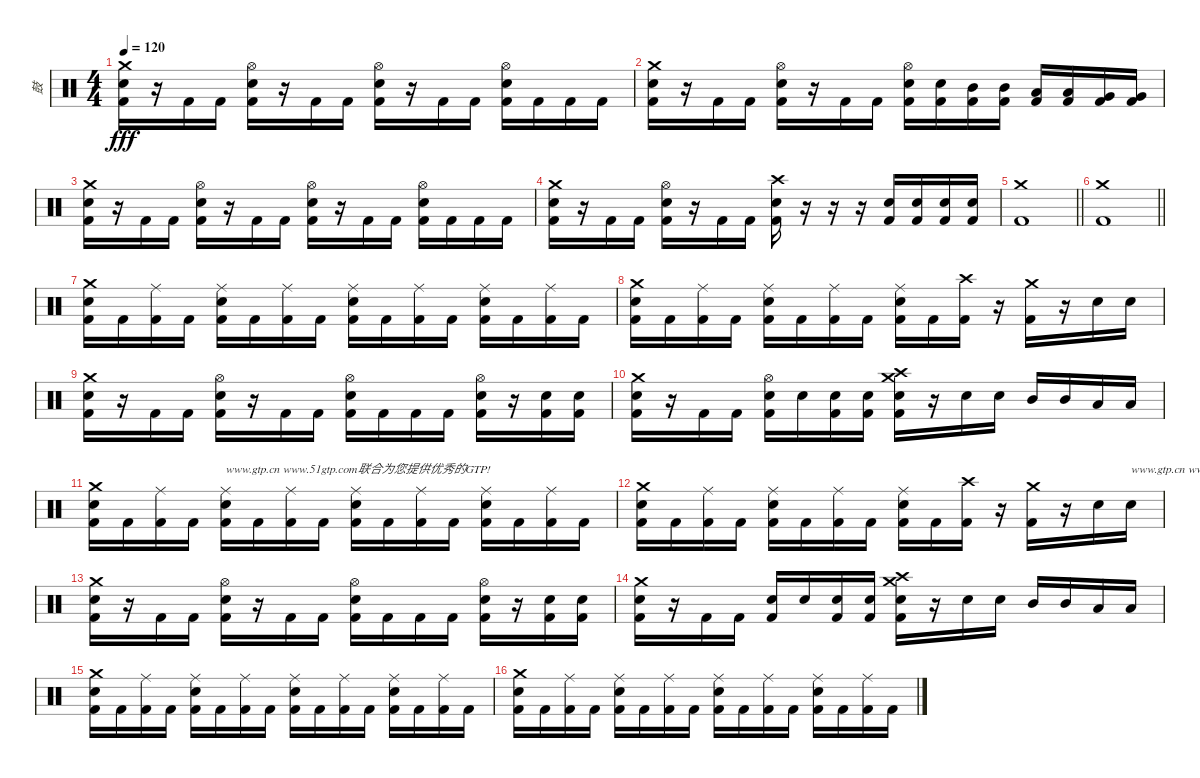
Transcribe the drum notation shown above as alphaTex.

\track ("鼓" "鼓") {instrument percussion}
\staff {score}
\articulation defaults
\ts (4 4)
\tempo 120
\clef neutral
\ks c
("Crash medium (hit)" "Snare (hit) 2" "Kick (hit) 2").16{dy fff} r.16 "Kick (hit) 2".16 "Kick (hit) 2".16 ("Hi-Hat (open)" "Snare (hit) 2" "Kick (hit) 2").16 r.16 "Kick (hit) 2".16 "Kick (hit) 2".16 ("Hi-Hat (open)" "Snare (hit) 2" "Kick (hit) 2").16 r.16 "Kick (hit) 2".16 "Kick (hit) 2".16 ("Hi-Hat (open)" "Snare (hit) 2" "Kick (hit) 2").16 "Kick (hit) 2".16 "Kick (hit) 2".16 "Kick (hit) 2".16 |
("Crash medium (hit)" "Snare (hit) 2" "Kick (hit) 2").16 r.16 "Kick (hit) 2".16 "Kick (hit) 2".16 ("Hi-Hat (open)" "Snare (hit) 2" "Kick (hit) 2").16 r.16 "Kick (hit) 2".16 "Kick (hit) 2".16 ("Hi-Hat (open)" "Snare (hit) 2" "Kick (hit) 2").16 ("Snare (hit) 2" "Kick (hit) 2").16 ("Mid Tom (hit)" "Kick (hit) 2").16 ("Mid Tom (hit)" "Kick (hit) 2").16 ("Low Tom (hit)" "Kick (hit) 2").16 ("Low Tom (hit)" "Kick (hit) 2").16 ("Very Low Tom (hit)" "Kick (hit) 2").16 ("Very Low Tom (hit)" "Kick (hit) 2").16 |
("Crash medium (hit)" "Snare (hit) 2" "Kick (hit) 2").16 r.16 "Kick (hit) 2".16 "Kick (hit) 2".16 ("Hi-Hat (open)" "Snare (hit) 2" "Kick (hit) 2").16 r.16 "Kick (hit) 2".16 "Kick (hit) 2".16 ("Hi-Hat (open)" "Snare (hit) 2" "Kick (hit) 2").16 r.16 "Kick (hit) 2".16 "Kick (hit) 2".16 ("Hi-Hat (open)" "Snare (hit) 2" "Kick (hit) 2").16 "Kick (hit) 2".16 "Kick (hit) 2".16 "Kick (hit) 2".16 |
("Crash medium (hit)" "Snare (hit) 2" "Kick (hit) 2").16 r.16 "Kick (hit) 2".16 "Kick (hit) 2".16 ("Hi-Hat (open)" "Snare (hit) 2" "Kick (hit) 2").16 r.16 "Kick (hit) 2".16 "Kick (hit) 2".16 ("Crash high (hit)" "Snare (hit) 2" "Kick (hit) 2").16 r.16 r.16 r.16 ("Snare (hit) 2" "Kick (hit) 2").16 ("Snare (hit) 2" "Kick (hit) 2").16 ("Snare (hit) 2" "Kick (hit) 2").16 ("Snare (hit) 2" "Kick (hit) 2").16 |
\barLineRight lightlight
("Crash medium (hit)" "Kick (hit) 2").1 |
\barLineRight lightlight
("Crash medium (hit)" "Kick (hit) 2").1 |
\section ("" "")
("Crash medium (hit)" "Snare (hit) 2" "Kick (hit) 2").16 "Kick (hit) 2".16 ("Ride (middle)" "Kick (hit) 2").16 "Kick (hit) 2".16 ("Ride (middle)" "Snare (hit) 2" "Kick (hit) 2").16 "Kick (hit) 2".16 ("Ride (middle)" "Kick (hit) 2").16 "Kick (hit) 2".16 ("Ride (middle)" "Snare (hit) 2" "Kick (hit) 2").16 "Kick (hit) 2".16 ("Ride (middle)" "Kick (hit) 2").16 "Kick (hit) 2".16 ("Ride (middle)" "Snare (hit) 2" "Kick (hit) 2").16 "Kick (hit) 2".16 ("Ride (middle)" "Kick (hit) 2").16 "Kick (hit) 2".16 |
("Crash medium (hit)" "Snare (hit) 2" "Kick (hit) 2").16 "Kick (hit) 2".16 ("Ride (middle)" "Kick (hit) 2").16 "Kick (hit) 2".16 ("Ride (middle)" "Snare (hit) 2" "Kick (hit) 2").16 "Kick (hit) 2".16 ("Ride (middle)" "Kick (hit) 2").16 "Kick (hit) 2".16 ("Ride (middle)" "Snare (hit) 2" "Kick (hit) 2").16 "Kick (hit) 2".16 ("Crash high (hit)" "Kick (hit) 2").16 r.16 ("Crash medium (hit)" "Kick (hit) 2").16 r.16 "Snare (hit) 2".16 "Snare (hit) 2".16 |
("Crash medium (hit)" "Snare (hit) 2" "Kick (hit) 2").16 r.16 "Kick (hit) 2".16 "Kick (hit) 2".16 ("Hi-Hat (open)" "Snare (hit) 2" "Kick (hit) 2").16 r.16 "Kick (hit) 2".16 "Kick (hit) 2".16 ("Hi-Hat (open)" "Snare (hit) 2" "Kick (hit) 2").16 "Kick (hit) 2".16 "Kick (hit) 2".16 "Kick (hit) 2".16 ("Hi-Hat (open)" "Snare (hit) 2" "Kick (hit) 2").16 r.16 ("Snare (hit) 2" "Kick (hit) 2").16 ("Snare (hit) 2" "Kick (hit) 2").16 |
("Crash medium (hit)" "Snare (hit) 2" "Kick (hit) 2").16 r.16 "Kick (hit) 2".16 "Kick (hit) 2".16 ("Hi-Hat (open)" "Snare (hit) 2" "Kick (hit) 2").16 "Snare (hit) 2".16 ("Snare (hit) 2" "Kick (hit) 2").16 ("Snare (hit) 2" "Kick (hit) 2").16 ("Crash medium (hit)" "Crash high (hit)" "Snare (hit) 2" "Kick (hit) 2").16 r.16 "Snare (hit) 2".16 "Snare (hit) 2".16 "Mid Tom (hit)".16 "Mid Tom (hit)".16 "Low Tom (hit)".16 "Low Tom (hit)".16 |
("Crash medium (hit)" "Snare (hit) 2" "Kick (hit) 2").16 "Kick (hit) 2".16 ("Ride (middle)" "Kick (hit) 2").16 "Kick (hit) 2".16 ("Ride (middle)" "Snare (hit) 2" "Kick (hit) 2").16{txt "www.gtp.cn www.51gtp.com联合为您提供优秀的GTP!"} "Kick (hit) 2".16 ("Ride (middle)" "Kick (hit) 2").16 "Kick (hit) 2".16 ("Ride (middle)" "Snare (hit) 2" "Kick (hit) 2").16 "Kick (hit) 2".16 ("Ride (middle)" "Kick (hit) 2").16 "Kick (hit) 2".16 ("Ride (middle)" "Snare (hit) 2" "Kick (hit) 2").16 "Kick (hit) 2".16 ("Ride (middle)" "Kick (hit) 2").16 "Kick (hit) 2".16 |
("Crash medium (hit)" "Snare (hit) 2" "Kick (hit) 2").16 "Kick (hit) 2".16 ("Ride (middle)" "Kick (hit) 2").16 "Kick (hit) 2".16 ("Ride (middle)" "Snare (hit) 2" "Kick (hit) 2").16 "Kick (hit) 2".16 ("Ride (middle)" "Kick (hit) 2").16 "Kick (hit) 2".16 ("Ride (middle)" "Snare (hit) 2" "Kick (hit) 2").16 "Kick (hit) 2".16 ("Crash high (hit)" "Kick (hit) 2").16 r.16 ("Crash medium (hit)" "Kick (hit) 2").16 r.16 "Snare (hit) 2".16 "Snare (hit) 2".16{txt "www.gtp.cn www.51gtp.com联合为您提供优秀的GTP!"} |
("Crash medium (hit)" "Snare (hit) 2" "Kick (hit) 2").16 r.16 "Kick (hit) 2".16 "Kick (hit) 2".16 ("Hi-Hat (open)" "Snare (hit) 2" "Kick (hit) 2").16 r.16 "Kick (hit) 2".16 "Kick (hit) 2".16 ("Hi-Hat (open)" "Snare (hit) 2" "Kick (hit) 2").16 "Kick (hit) 2".16 "Kick (hit) 2".16 "Kick (hit) 2".16 ("Hi-Hat (open)" "Snare (hit) 2" "Kick (hit) 2").16 r.16 ("Snare (hit) 2" "Kick (hit) 2").16 ("Snare (hit) 2" "Kick (hit) 2").16 |
("Crash medium (hit)" "Snare (hit) 2" "Kick (hit) 2").16 r.16 "Kick (hit) 2".16 "Kick (hit) 2".16 ("Snare (hit) 2" "Kick (hit) 2").16 "Snare (hit) 2".16 ("Snare (hit) 2" "Kick (hit) 2").16 ("Snare (hit) 2" "Kick (hit) 2").16 ("Crash medium (hit)" "Crash high (hit)" "Snare (hit) 2" "Kick (hit) 2").16 r.16 "Snare (hit) 2".16 "Snare (hit) 2".16 "Mid Tom (hit)".16 "Mid Tom (hit)".16 "Low Tom (hit)".16 "Low Tom (hit)".16 |
("Crash medium (hit)" "Snare (hit) 2" "Kick (hit) 2").16 "Kick (hit) 2".16 ("Ride (middle)" "Kick (hit) 2").16 "Kick (hit) 2".16 ("Ride (middle)" "Snare (hit) 2" "Kick (hit) 2").16 "Kick (hit) 2".16 ("Ride (middle)" "Kick (hit) 2").16 "Kick (hit) 2".16 ("Ride (middle)" "Snare (hit) 2" "Kick (hit) 2").16 "Kick (hit) 2".16 ("Ride (middle)" "Kick (hit) 2").16 "Kick (hit) 2".16 ("Ride (middle)" "Snare (hit) 2" "Kick (hit) 2").16 "Kick (hit) 2".16 ("Ride (middle)" "Kick (hit) 2").16 "Kick (hit) 2".16 |
("Crash medium (hit)" "Snare (hit) 2" "Kick (hit) 2").16 "Kick (hit) 2".16 ("Ride (middle)" "Kick (hit) 2").16 "Kick (hit) 2".16 ("Ride (middle)" "Snare (hit) 2" "Kick (hit) 2").16 "Kick (hit) 2".16 ("Ride (middle)" "Kick (hit) 2").16 "Kick (hit) 2".16 ("Ride (middle)" "Snare (hit) 2" "Kick (hit) 2").16 "Kick (hit) 2".16 ("Ride (middle)" "Kick (hit) 2").16 "Kick (hit) 2".16 ("Ride (middle)" "Snare (hit) 2" "Kick (hit) 2").16 "Kick (hit) 2".16 ("Ride (middle)" "Kick (hit) 2").16 "Kick (hit) 2".16
